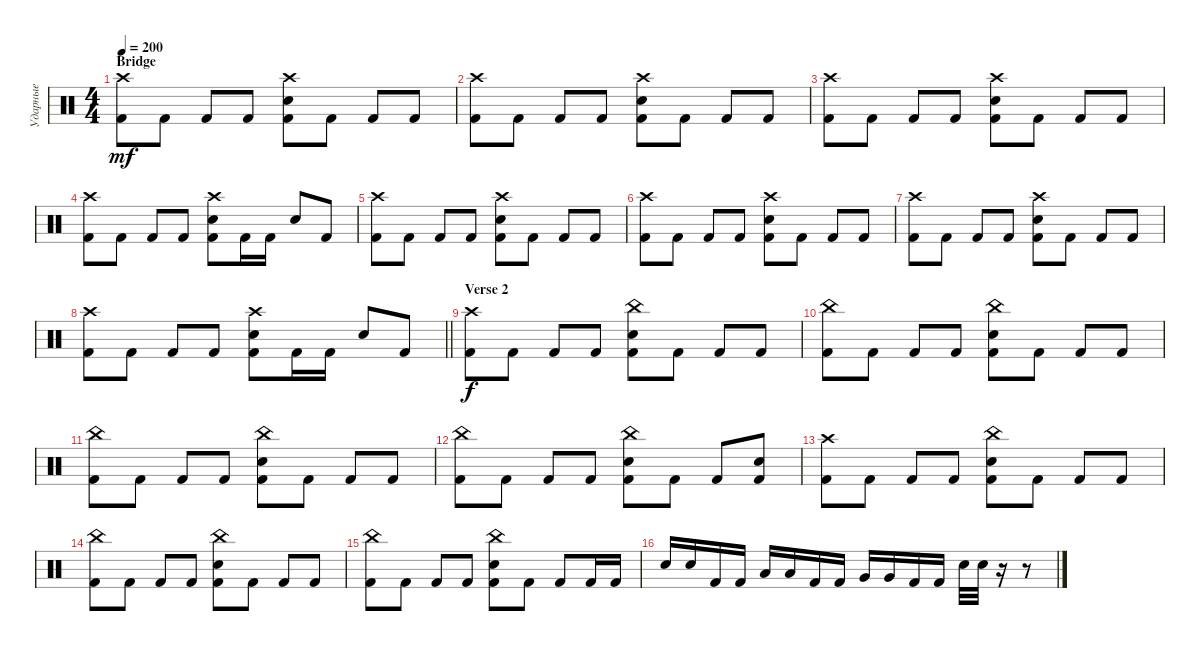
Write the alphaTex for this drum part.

\track ("Ударные" "Ударные") {instrument percussion}
\staff {score}
\articulation defaults
\ts (4 4)
\section ("" "Bridge")
\tempo 200
\clef neutral
\ks c
("Crash high (hit)" "Kick (hit) 2").8{dy mf} "Kick (hit) 2".8 "Kick (hit) 2".8 "Kick (hit) 2".8 ("Crash high (hit)" "Snare (hit) 2" "Kick (hit) 2").8 "Kick (hit) 2".8 "Kick (hit) 2".8 "Kick (hit) 2".8 |
("Crash high (hit)" "Kick (hit) 2").8 "Kick (hit) 2".8 "Kick (hit) 2".8 "Kick (hit) 2".8 ("Crash high (hit)" "Snare (hit) 2" "Kick (hit) 2").8 "Kick (hit) 2".8 "Kick (hit) 2".8 "Kick (hit) 2".8 |
("Crash high (hit)" "Kick (hit) 2").8 "Kick (hit) 2".8 "Kick (hit) 2".8 "Kick (hit) 2".8 ("Crash high (hit)" "Snare (hit) 2" "Kick (hit) 2").8 "Kick (hit) 2".8 "Kick (hit) 2".8 "Kick (hit) 2".8 |
("Crash high (hit)" "Kick (hit) 2").8 "Kick (hit) 2".8 "Kick (hit) 2".8 "Kick (hit) 2".8 ("Crash high (hit)" "Snare (hit) 2" "Kick (hit) 2").8 "Kick (hit) 2".16 "Kick (hit) 2".16 "Snare (hit) 2".8 "Kick (hit) 2".8 |
("Crash high (hit)" "Kick (hit) 2").8 "Kick (hit) 2".8 "Kick (hit) 2".8 "Kick (hit) 2".8 ("Crash high (hit)" "Snare (hit) 2" "Kick (hit) 2").8 "Kick (hit) 2".8 "Kick (hit) 2".8 "Kick (hit) 2".8 |
("Crash high (hit)" "Kick (hit) 2").8 "Kick (hit) 2".8 "Kick (hit) 2".8 "Kick (hit) 2".8 ("Crash high (hit)" "Snare (hit) 2" "Kick (hit) 2").8 "Kick (hit) 2".8 "Kick (hit) 2".8 "Kick (hit) 2".8 |
("Crash high (hit)" "Kick (hit) 2").8 "Kick (hit) 2".8 "Kick (hit) 2".8 "Kick (hit) 2".8 ("Crash high (hit)" "Snare (hit) 2" "Kick (hit) 2").8 "Kick (hit) 2".8 "Kick (hit) 2".8 "Kick (hit) 2".8 |
\barLineRight lightlight
("Crash high (hit)" "Kick (hit) 2").8 "Kick (hit) 2".8 "Kick (hit) 2".8 "Kick (hit) 2".8 ("Crash high (hit)" "Snare (hit) 2" "Kick (hit) 2").8 "Kick (hit) 2".16 "Kick (hit) 2".16 "Snare (hit) 2".8 "Kick (hit) 2".8 |
\section ("" "Verse 2")
("Crash high (hit)" "Kick (hit) 2").8{dy f} "Kick (hit) 2".8 "Kick (hit) 2".8 "Kick (hit) 2".8 ("China (hit)" "Snare (hit) 2" "Kick (hit) 2").8 "Kick (hit) 2".8 "Kick (hit) 2".8 "Kick (hit) 2".8 |
("China (hit)" "Kick (hit) 2").8 "Kick (hit) 2".8 "Kick (hit) 2".8 "Kick (hit) 2".8 ("China (hit)" "Snare (hit) 2" "Kick (hit) 2").8 "Kick (hit) 2".8 "Kick (hit) 2".8 "Kick (hit) 2".8 |
("China (hit)" "Kick (hit) 2").8 "Kick (hit) 2".8 "Kick (hit) 2".8 "Kick (hit) 2".8 ("China (hit)" "Snare (hit) 2" "Kick (hit) 2").8 "Kick (hit) 2".8 "Kick (hit) 2".8 "Kick (hit) 2".8 |
("China (hit)" "Kick (hit) 2").8 "Kick (hit) 2".8 "Kick (hit) 2".8 "Kick (hit) 2".8 ("China (hit)" "Snare (hit) 2" "Kick (hit) 2").8 "Kick (hit) 2".8 "Kick (hit) 2".8 ("Snare (hit) 2" "Kick (hit) 2").8 |
("Crash high (hit)" "Kick (hit) 2").8 "Kick (hit) 2".8 "Kick (hit) 2".8 "Kick (hit) 2".8 ("China (hit)" "Snare (hit) 2" "Kick (hit) 2").8 "Kick (hit) 2".8 "Kick (hit) 2".8 "Kick (hit) 2".8 |
("China (hit)" "Kick (hit) 2").8 "Kick (hit) 2".8 "Kick (hit) 2".8 "Kick (hit) 2".8 ("China (hit)" "Snare (hit) 2" "Kick (hit) 2").8 "Kick (hit) 2".8 "Kick (hit) 2".8 "Kick (hit) 2".8 |
("China (hit)" "Kick (hit) 2").8 "Kick (hit) 2".8 "Kick (hit) 2".8 "Kick (hit) 2".8 ("China (hit)" "Snare (hit) 2" "Kick (hit) 2").8 "Kick (hit) 2".8 "Kick (hit) 2".8 "Kick (hit) 2".16 "Kick (hit) 2".16 |
"Snare (hit) 2".16 "Snare (hit) 2".16 "Kick (hit) 2".16 "Kick (hit) 2".16 "Low Tom (hit)".16 "Low Tom (hit)".16 "Kick (hit) 2".16 "Kick (hit) 2".16 "Very Low Tom (hit)".16 "Very Low Tom (hit)".16 "Kick (hit) 2".16 "Kick (hit) 2".16 "Snare (hit) 2".32 "Snare (hit) 2".32 r.16 r.8
